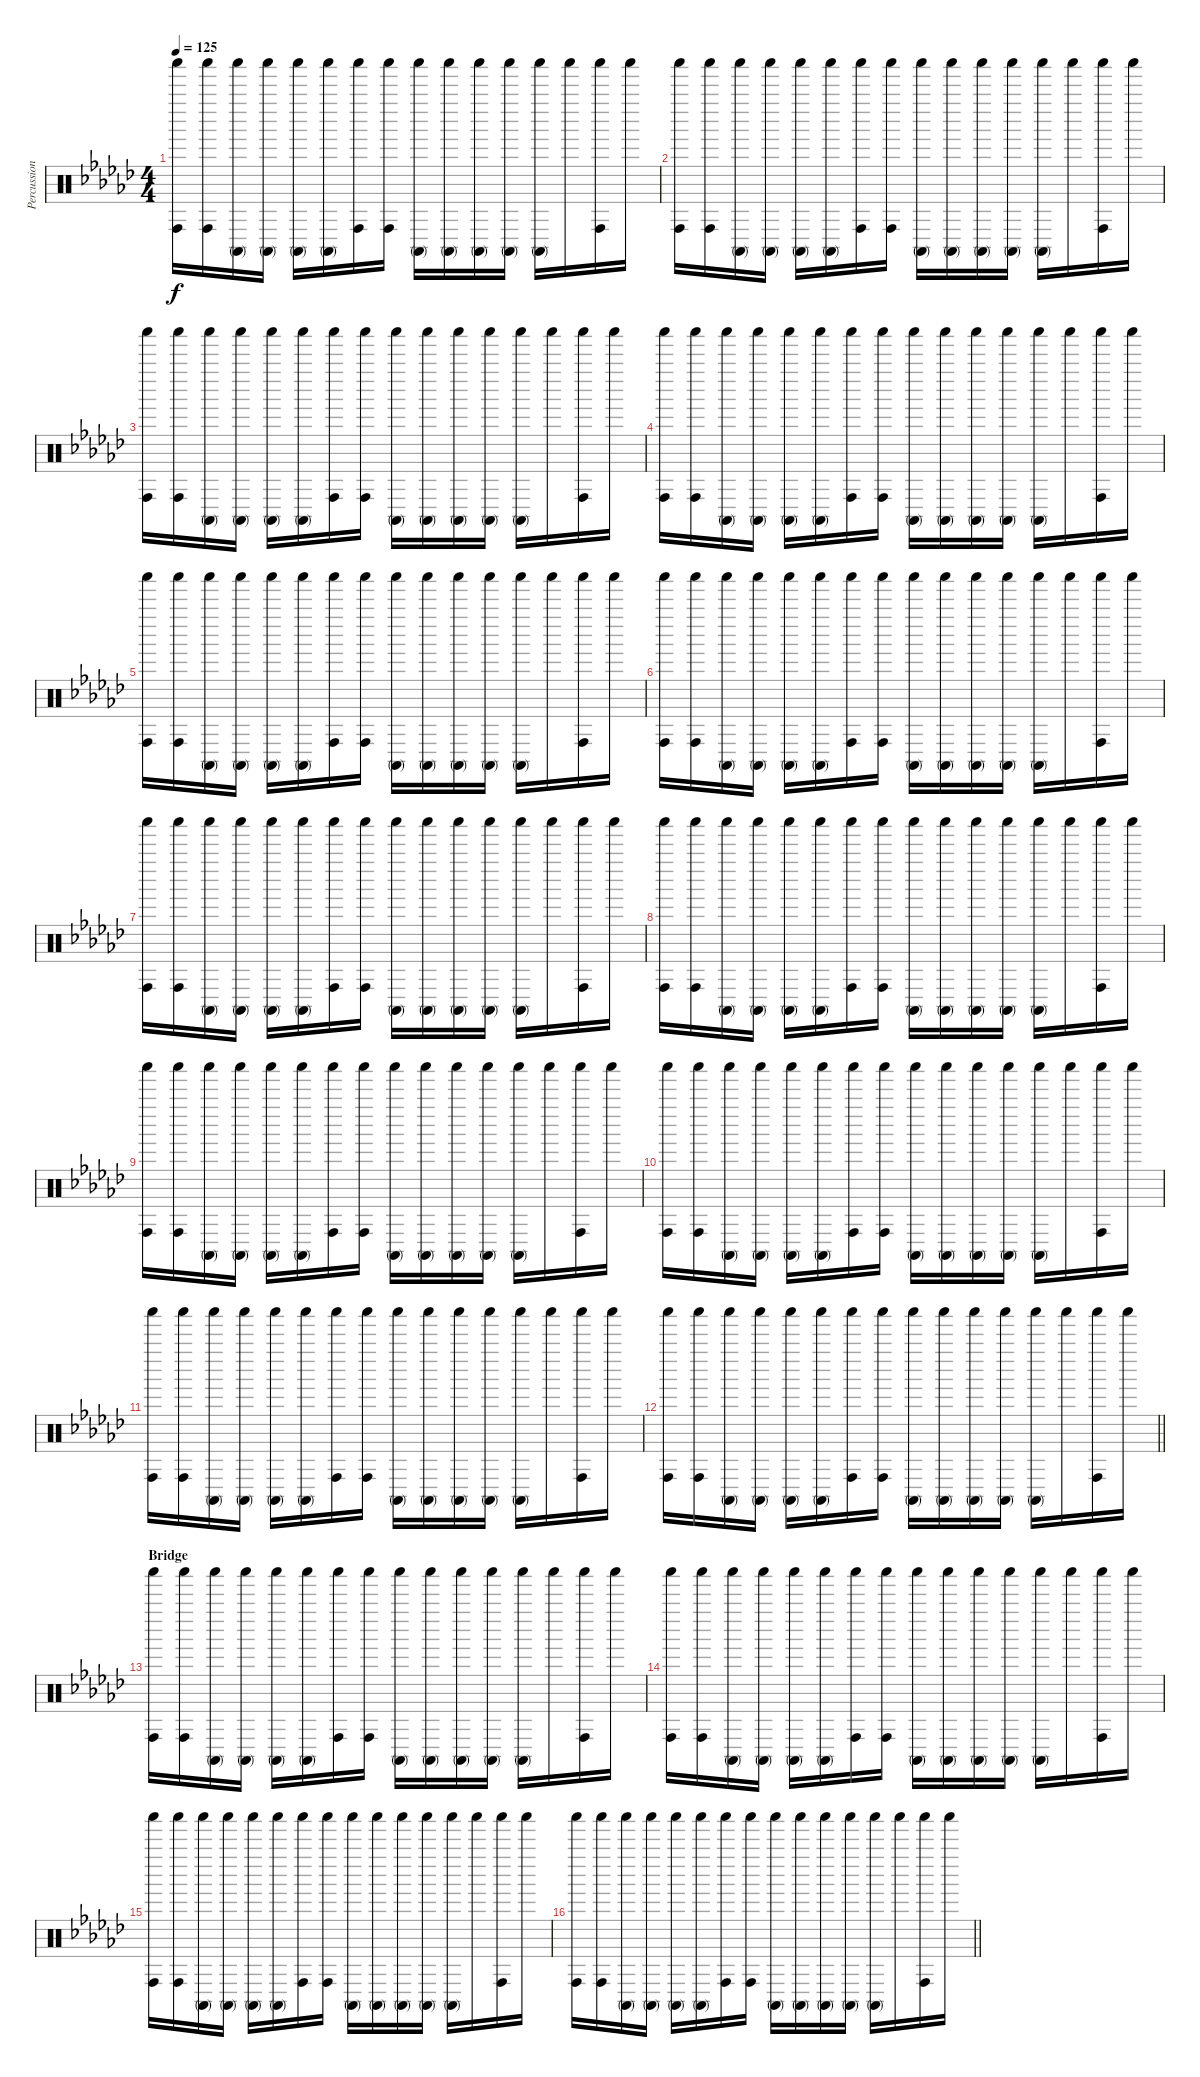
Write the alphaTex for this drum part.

\track ("Percussion" "Percussion") {instrument percussion}
\staff {score}
\articulation defaults
\ts (4 4)
\tempo 125
\clef neutral
\ks gb
("Shaker (hit)" "Conga high (hit)").16{dy f} ("Shaker (hit)" "Conga high (hit)").16 ("Shaker (hit)" "Conga high (mute)").16 ("Shaker (hit)" "Conga high (mute)").16 ("Shaker (hit)" "Conga high (mute)").16 ("Shaker (hit)" "Conga high (mute)").16 ("Shaker (hit)" "Conga high (hit)").16 ("Shaker (hit)" "Conga high (hit)").16 ("Shaker (hit)" "Conga high (mute)").16 ("Shaker (hit)" "Conga high (mute)").16 ("Shaker (hit)" "Conga high (mute)").16 ("Shaker (hit)" "Conga high (mute)").16 ("Shaker (hit)" "Conga high (mute)").16 "Shaker (hit)".16 ("Shaker (hit)" "Conga high (hit)").16 "Shaker (hit)".16 |
("Shaker (hit)" "Conga high (hit)").16 ("Shaker (hit)" "Conga high (hit)").16 ("Shaker (hit)" "Conga high (mute)").16 ("Shaker (hit)" "Conga high (mute)").16 ("Shaker (hit)" "Conga high (mute)").16 ("Shaker (hit)" "Conga high (mute)").16 ("Shaker (hit)" "Conga high (hit)").16 ("Shaker (hit)" "Conga high (hit)").16 ("Shaker (hit)" "Conga high (mute)").16 ("Shaker (hit)" "Conga high (mute)").16 ("Shaker (hit)" "Conga high (mute)").16 ("Shaker (hit)" "Conga high (mute)").16 ("Shaker (hit)" "Conga high (mute)").16 "Shaker (hit)".16 ("Shaker (hit)" "Conga high (hit)").16 "Shaker (hit)".16 |
("Shaker (hit)" "Conga high (hit)").16 ("Shaker (hit)" "Conga high (hit)").16 ("Shaker (hit)" "Conga high (mute)").16 ("Shaker (hit)" "Conga high (mute)").16 ("Shaker (hit)" "Conga high (mute)").16 ("Shaker (hit)" "Conga high (mute)").16 ("Shaker (hit)" "Conga high (hit)").16 ("Shaker (hit)" "Conga high (hit)").16 ("Shaker (hit)" "Conga high (mute)").16 ("Shaker (hit)" "Conga high (mute)").16 ("Shaker (hit)" "Conga high (mute)").16 ("Shaker (hit)" "Conga high (mute)").16 ("Shaker (hit)" "Conga high (mute)").16 "Shaker (hit)".16 ("Shaker (hit)" "Conga high (hit)").16 "Shaker (hit)".16 |
("Shaker (hit)" "Conga high (hit)").16 ("Shaker (hit)" "Conga high (hit)").16 ("Shaker (hit)" "Conga high (mute)").16 ("Shaker (hit)" "Conga high (mute)").16 ("Shaker (hit)" "Conga high (mute)").16 ("Shaker (hit)" "Conga high (mute)").16 ("Shaker (hit)" "Conga high (hit)").16 ("Shaker (hit)" "Conga high (hit)").16 ("Shaker (hit)" "Conga high (mute)").16 ("Shaker (hit)" "Conga high (mute)").16 ("Shaker (hit)" "Conga high (mute)").16 ("Shaker (hit)" "Conga high (mute)").16 ("Shaker (hit)" "Conga high (mute)").16 "Shaker (hit)".16 ("Shaker (hit)" "Conga high (hit)").16 "Shaker (hit)".16 |
("Shaker (hit)" "Conga high (hit)").16 ("Shaker (hit)" "Conga high (hit)").16 ("Shaker (hit)" "Conga high (mute)").16 ("Shaker (hit)" "Conga high (mute)").16 ("Shaker (hit)" "Conga high (mute)").16 ("Shaker (hit)" "Conga high (mute)").16 ("Shaker (hit)" "Conga high (hit)").16 ("Shaker (hit)" "Conga high (hit)").16 ("Shaker (hit)" "Conga high (mute)").16 ("Shaker (hit)" "Conga high (mute)").16 ("Shaker (hit)" "Conga high (mute)").16 ("Shaker (hit)" "Conga high (mute)").16 ("Shaker (hit)" "Conga high (mute)").16 "Shaker (hit)".16 ("Shaker (hit)" "Conga high (hit)").16 "Shaker (hit)".16 |
("Shaker (hit)" "Conga high (hit)").16 ("Shaker (hit)" "Conga high (hit)").16 ("Shaker (hit)" "Conga high (mute)").16 ("Shaker (hit)" "Conga high (mute)").16 ("Shaker (hit)" "Conga high (mute)").16 ("Shaker (hit)" "Conga high (mute)").16 ("Shaker (hit)" "Conga high (hit)").16 ("Shaker (hit)" "Conga high (hit)").16 ("Shaker (hit)" "Conga high (mute)").16 ("Shaker (hit)" "Conga high (mute)").16 ("Shaker (hit)" "Conga high (mute)").16 ("Shaker (hit)" "Conga high (mute)").16 ("Shaker (hit)" "Conga high (mute)").16 "Shaker (hit)".16 ("Shaker (hit)" "Conga high (hit)").16 "Shaker (hit)".16 |
("Shaker (hit)" "Conga high (hit)").16 ("Shaker (hit)" "Conga high (hit)").16 ("Shaker (hit)" "Conga high (mute)").16 ("Shaker (hit)" "Conga high (mute)").16 ("Shaker (hit)" "Conga high (mute)").16 ("Shaker (hit)" "Conga high (mute)").16 ("Shaker (hit)" "Conga high (hit)").16 ("Shaker (hit)" "Conga high (hit)").16 ("Shaker (hit)" "Conga high (mute)").16 ("Shaker (hit)" "Conga high (mute)").16 ("Shaker (hit)" "Conga high (mute)").16 ("Shaker (hit)" "Conga high (mute)").16 ("Shaker (hit)" "Conga high (mute)").16 "Shaker (hit)".16 ("Shaker (hit)" "Conga high (hit)").16 "Shaker (hit)".16 |
("Shaker (hit)" "Conga high (hit)").16 ("Shaker (hit)" "Conga high (hit)").16 ("Shaker (hit)" "Conga high (mute)").16 ("Shaker (hit)" "Conga high (mute)").16 ("Shaker (hit)" "Conga high (mute)").16 ("Shaker (hit)" "Conga high (mute)").16 ("Shaker (hit)" "Conga high (hit)").16 ("Shaker (hit)" "Conga high (hit)").16 ("Shaker (hit)" "Conga high (mute)").16 ("Shaker (hit)" "Conga high (mute)").16 ("Shaker (hit)" "Conga high (mute)").16 ("Shaker (hit)" "Conga high (mute)").16 ("Shaker (hit)" "Conga high (mute)").16 "Shaker (hit)".16 ("Shaker (hit)" "Conga high (hit)").16 "Shaker (hit)".16 |
("Shaker (hit)" "Conga high (hit)").16 ("Shaker (hit)" "Conga high (hit)").16 ("Shaker (hit)" "Conga high (mute)").16 ("Shaker (hit)" "Conga high (mute)").16 ("Shaker (hit)" "Conga high (mute)").16 ("Shaker (hit)" "Conga high (mute)").16 ("Shaker (hit)" "Conga high (hit)").16 ("Shaker (hit)" "Conga high (hit)").16 ("Shaker (hit)" "Conga high (mute)").16 ("Shaker (hit)" "Conga high (mute)").16 ("Shaker (hit)" "Conga high (mute)").16 ("Shaker (hit)" "Conga high (mute)").16 ("Shaker (hit)" "Conga high (mute)").16 "Shaker (hit)".16 ("Shaker (hit)" "Conga high (hit)").16 "Shaker (hit)".16 |
("Shaker (hit)" "Conga high (hit)").16 ("Shaker (hit)" "Conga high (hit)").16 ("Shaker (hit)" "Conga high (mute)").16 ("Shaker (hit)" "Conga high (mute)").16 ("Shaker (hit)" "Conga high (mute)").16 ("Shaker (hit)" "Conga high (mute)").16 ("Shaker (hit)" "Conga high (hit)").16 ("Shaker (hit)" "Conga high (hit)").16 ("Shaker (hit)" "Conga high (mute)").16 ("Shaker (hit)" "Conga high (mute)").16 ("Shaker (hit)" "Conga high (mute)").16 ("Shaker (hit)" "Conga high (mute)").16 ("Shaker (hit)" "Conga high (mute)").16 "Shaker (hit)".16 ("Shaker (hit)" "Conga high (hit)").16 "Shaker (hit)".16 |
("Shaker (hit)" "Conga high (hit)").16 ("Shaker (hit)" "Conga high (hit)").16 ("Shaker (hit)" "Conga high (mute)").16 ("Shaker (hit)" "Conga high (mute)").16 ("Shaker (hit)" "Conga high (mute)").16 ("Shaker (hit)" "Conga high (mute)").16 ("Shaker (hit)" "Conga high (hit)").16 ("Shaker (hit)" "Conga high (hit)").16 ("Shaker (hit)" "Conga high (mute)").16 ("Shaker (hit)" "Conga high (mute)").16 ("Shaker (hit)" "Conga high (mute)").16 ("Shaker (hit)" "Conga high (mute)").16 ("Shaker (hit)" "Conga high (mute)").16 "Shaker (hit)".16 ("Shaker (hit)" "Conga high (hit)").16 "Shaker (hit)".16 |
\barLineRight lightlight
("Shaker (hit)" "Conga high (hit)").16 ("Shaker (hit)" "Conga high (hit)").16 ("Shaker (hit)" "Conga high (mute)").16 ("Shaker (hit)" "Conga high (mute)").16 ("Shaker (hit)" "Conga high (mute)").16 ("Shaker (hit)" "Conga high (mute)").16 ("Shaker (hit)" "Conga high (hit)").16 ("Shaker (hit)" "Conga high (hit)").16 ("Shaker (hit)" "Conga high (mute)").16 ("Shaker (hit)" "Conga high (mute)").16 ("Shaker (hit)" "Conga high (mute)").16 ("Shaker (hit)" "Conga high (mute)").16 ("Shaker (hit)" "Conga high (mute)").16 "Shaker (hit)".16 ("Shaker (hit)" "Conga high (hit)").16 "Shaker (hit)".16 |
\section ("" "Bridge")
("Shaker (hit)" "Conga high (hit)").16 ("Shaker (hit)" "Conga high (hit)").16 ("Shaker (hit)" "Conga high (mute)").16 ("Shaker (hit)" "Conga high (mute)").16 ("Shaker (hit)" "Conga high (mute)").16 ("Shaker (hit)" "Conga high (mute)").16 ("Shaker (hit)" "Conga high (hit)").16 ("Shaker (hit)" "Conga high (hit)").16 ("Shaker (hit)" "Conga high (mute)").16 ("Shaker (hit)" "Conga high (mute)").16 ("Shaker (hit)" "Conga high (mute)").16 ("Shaker (hit)" "Conga high (mute)").16 ("Shaker (hit)" "Conga high (mute)").16 "Shaker (hit)".16 ("Shaker (hit)" "Conga high (hit)").16 "Shaker (hit)".16 |
("Shaker (hit)" "Conga high (hit)").16 ("Shaker (hit)" "Conga high (hit)").16 ("Shaker (hit)" "Conga high (mute)").16 ("Shaker (hit)" "Conga high (mute)").16 ("Shaker (hit)" "Conga high (mute)").16 ("Shaker (hit)" "Conga high (mute)").16 ("Shaker (hit)" "Conga high (hit)").16 ("Shaker (hit)" "Conga high (hit)").16 ("Shaker (hit)" "Conga high (mute)").16 ("Shaker (hit)" "Conga high (mute)").16 ("Shaker (hit)" "Conga high (mute)").16 ("Shaker (hit)" "Conga high (mute)").16 ("Shaker (hit)" "Conga high (mute)").16 "Shaker (hit)".16 ("Shaker (hit)" "Conga high (hit)").16 "Shaker (hit)".16 |
("Shaker (hit)" "Conga high (hit)").16 ("Shaker (hit)" "Conga high (hit)").16 ("Shaker (hit)" "Conga high (mute)").16 ("Shaker (hit)" "Conga high (mute)").16 ("Shaker (hit)" "Conga high (mute)").16 ("Shaker (hit)" "Conga high (mute)").16 ("Shaker (hit)" "Conga high (hit)").16 ("Shaker (hit)" "Conga high (hit)").16 ("Shaker (hit)" "Conga high (mute)").16 ("Shaker (hit)" "Conga high (mute)").16 ("Shaker (hit)" "Conga high (mute)").16 ("Shaker (hit)" "Conga high (mute)").16 ("Shaker (hit)" "Conga high (mute)").16 "Shaker (hit)".16 ("Shaker (hit)" "Conga high (hit)").16 "Shaker (hit)".16 |
\barLineRight lightlight
("Shaker (hit)" "Conga high (hit)").16 ("Shaker (hit)" "Conga high (hit)").16 ("Shaker (hit)" "Conga high (mute)").16 ("Shaker (hit)" "Conga high (mute)").16 ("Shaker (hit)" "Conga high (mute)").16 ("Shaker (hit)" "Conga high (mute)").16 ("Shaker (hit)" "Conga high (hit)").16 ("Shaker (hit)" "Conga high (hit)").16 ("Shaker (hit)" "Conga high (mute)").16 ("Shaker (hit)" "Conga high (mute)").16 ("Shaker (hit)" "Conga high (mute)").16 ("Shaker (hit)" "Conga high (mute)").16 ("Shaker (hit)" "Conga high (mute)").16 "Shaker (hit)".16 ("Shaker (hit)" "Conga high (hit)").16 "Shaker (hit)".16
